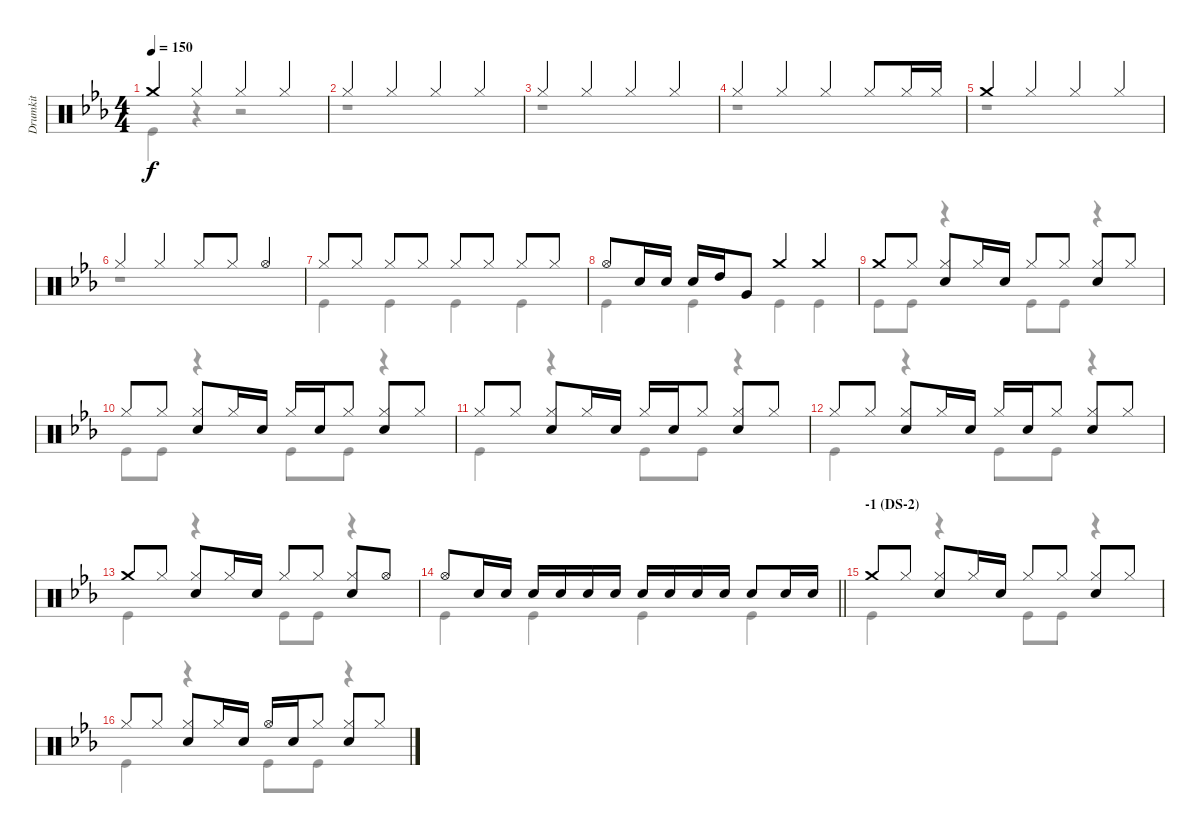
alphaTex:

\track ("Drumkit" "Drumkit") {instrument percussion}
\staff {score}
\articulation defaults
\voice
\ts (4 4)
\section ("" "")
\tempo 150
\clef neutral
\ks eb "Crash medium (hit)".4{dy f} "Hi-Hat (closed)".4 "Hi-Hat (closed)".4 "Hi-Hat (closed)".4
|
"Hi-Hat (closed)".4 "Hi-Hat (closed)".4 "Hi-Hat (closed)".4 "Hi-Hat (closed)".4 |
"Hi-Hat (closed)".4 "Hi-Hat (closed)".4 "Hi-Hat (closed)".4 "Hi-Hat (closed)".4 |
"Hi-Hat (closed)".4 "Hi-Hat (closed)".4 "Hi-Hat (closed)".4 "Hi-Hat (closed)".8 "Hi-Hat (closed)".16 "Hi-Hat (closed)".16 |
"Crash medium (hit)".4 "Hi-Hat (closed)".4 "Hi-Hat (closed)".4 "Hi-Hat (closed)".4 |
"Hi-Hat (closed)".4 "Hi-Hat (closed)".4 "Hi-Hat (closed)".8 "Hi-Hat (closed)".8 "Hi-Hat (open)".4 |
"Hi-Hat (closed)".8 "Hi-Hat (closed)".8 "Hi-Hat (closed)".8 "Hi-Hat (closed)".8 "Hi-Hat (closed)".8 "Hi-Hat (closed)".8 "Hi-Hat (closed)".8 "Hi-Hat (closed)".8 |
"Hi-Hat (open)".8 "Snare (hit) 2".16 "Snare (hit) 2".16 "Snare (hit) 2".16 "High Tom (hit)".16 "Very Low Tom (hit)".8 "Crash medium (hit)".4 "Crash medium (hit)".4 |
"Crash medium (hit)".8 "Hi-Hat (closed)".8 ("Hi-Hat (closed)" "Snare (hit) 2").8 "Hi-Hat (closed)".16 "Snare (hit) 2".16 "Hi-Hat (closed)".8 "Hi-Hat (closed)".8 ("Hi-Hat (closed)" "Snare (hit) 2").8 "Hi-Hat (closed)".8 |
"Hi-Hat (closed)".8 "Hi-Hat (closed)".8 ("Hi-Hat (closed)" "Snare (hit) 2").8 "Hi-Hat (closed)".16 "Snare (hit) 2".16 "Hi-Hat (closed)".16 "Snare (hit) 2".16 "Hi-Hat (closed)".8 ("Hi-Hat (closed)" "Snare (hit) 2").8 "Hi-Hat (closed)".8 |
"Hi-Hat (closed)".8 "Hi-Hat (closed)".8 ("Hi-Hat (closed)" "Snare (hit) 2").8 "Hi-Hat (closed)".16 "Snare (hit) 2".16 "Hi-Hat (closed)".16 "Snare (hit) 2".16 "Hi-Hat (closed)".8 ("Hi-Hat (closed)" "Snare (hit) 2").8 "Hi-Hat (closed)".8 |
"Hi-Hat (closed)".8 "Hi-Hat (closed)".8 ("Hi-Hat (closed)" "Snare (hit) 2").8 "Hi-Hat (closed)".16 "Snare (hit) 2".16 "Hi-Hat (closed)".16 "Snare (hit) 2".16 "Hi-Hat (closed)".8 ("Hi-Hat (closed)" "Snare (hit) 2").8 "Hi-Hat (closed)".8 |
"Crash medium (hit)".8 "Hi-Hat (closed)".8 ("Hi-Hat (closed)" "Snare (hit) 2").8 "Hi-Hat (closed)".16 "Snare (hit) 2".16 "Hi-Hat (closed)".8 "Hi-Hat (closed)".8 ("Hi-Hat (closed)" "Snare (hit) 2").8 "Hi-Hat (open)".8 |
\barLineRight lightlight "Hi-Hat (open)".8 "Snare (hit) 2".16 "Snare (hit) 2".16 "Snare (hit) 2".16 "Snare (hit) 2".16 "Snare (hit) 2".16 "Snare (hit) 2".16 "Snare (hit) 2".16 "Snare (hit) 2".16 "Snare (hit) 2".16 "Snare (hit) 2".16 "Snare (hit) 2".8 "Snare (hit) 2".16 "Snare (hit) 2".16
|
\section ("" "-1 (DS-2)")
"Crash medium (hit)".8 "Hi-Hat (closed)".8 ("Hi-Hat (closed)" "Snare (hit) 2").8 "Hi-Hat (closed)".16 "Snare (hit) 2".16 "Hi-Hat (closed)".8 "Hi-Hat (closed)".8 ("Hi-Hat (closed)" "Snare (hit) 2").8 "Hi-Hat (closed)".8 |
"Hi-Hat (closed)".8 "Hi-Hat (closed)".8 ("Hi-Hat (closed)" "Snare (hit) 2").8 "Hi-Hat (closed)".16 "Snare (hit) 2".16 "Hi-Hat (open)".16 "Snare (hit) 2".16 "Hi-Hat (closed)".8 ("Hi-Hat (closed)" "Snare (hit) 2").8 "Hi-Hat (closed)".8
\voice
\clef neutral
\ottava regular
\simile none
\ks eb "Kick (hit)".4{dy f}
r.4 r.2 |
r.1 |
r.1 |
r.1 |
r.1 |
r.1 |
"Kick (hit)".4 "Kick (hit)".4 "Kick (hit)".4 "Kick (hit)".4 |
"Kick (hit)".4 "Kick (hit)".4 "Kick (hit)".4 "Kick (hit)".4 |
"Kick (hit)".8 "Kick (hit)".8 r.4 "Kick (hit)".8 "Kick (hit)".8 r.4 |
"Kick (hit)".8 "Kick (hit)".8 r.4 "Kick (hit)".8 "Kick (hit)".8 r.4 |
"Kick (hit)".4 r.4 "Kick (hit)".8 "Kick (hit)".8 r.4 |
"Kick (hit)".4 r.4 "Kick (hit)".8 "Kick (hit)".8 r.4 |
"Kick (hit)".4 r.4 "Kick (hit)".8 "Kick (hit)".8 r.4 |
\barLineRight lightlight "Kick (hit)".4 "Kick (hit)".4 "Kick (hit)".4 "Kick (hit)".4
|
"Kick (hit)".4 r.4 "Kick (hit)".8 "Kick (hit)".8 r.4 |
"Kick (hit)".4 r.4 "Kick (hit)".8 "Kick (hit)".8 r.4
